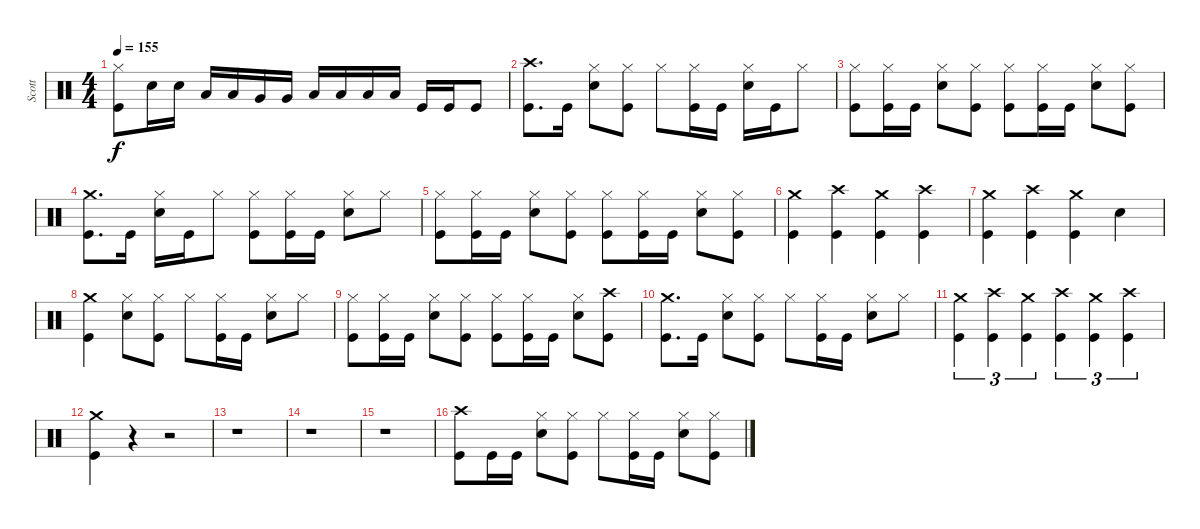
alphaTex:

\track ("Scott" "Scott") {instrument percussion}
\staff {score}
\articulation defaults
\ts (4 4)
\tempo 155
\clef neutral
\ks c
("Kick (hit)" "Hi-Hat (closed)").8{dy f} "Snare (hit) 2".16 "Snare (hit) 2".16 "Low Tom (hit)".16 "Low Tom (hit)".16 "Very Low Tom (hit)".16 "Very Low Tom (hit)".16 "Low Floor Tom (hit)".16 "Low Floor Tom (hit)".16 "Low Floor Tom (hit)".16 "Low Floor Tom (hit)".16 "Kick (hit)".16 "Kick (hit)".16 "Kick (hit)".8 |
("Kick (hit)" "Crash high (hit)").8{d} "Kick (hit)".16 ("Snare (hit) 2" "Hi-Hat (closed)").8 ("Kick (hit)" "Hi-Hat (closed)").8 "Hi-Hat (closed)".8 ("Kick (hit)" "Hi-Hat (closed)").16 "Kick (hit)".16 ("Snare (hit) 2" "Hi-Hat (closed)").16 "Kick (hit)".16 "Hi-Hat (closed)".8 |
("Kick (hit)" "Hi-Hat (closed)").8 ("Kick (hit)" "Hi-Hat (closed)").16 "Kick (hit)".16 ("Snare (hit) 2" "Hi-Hat (closed)").8 ("Kick (hit)" "Hi-Hat (closed)").8 ("Kick (hit)" "Hi-Hat (closed)").8 ("Kick (hit)" "Hi-Hat (closed)").16 "Kick (hit)".16 ("Snare (hit) 2" "Hi-Hat (closed)").8 ("Kick (hit)" "Hi-Hat (closed)").8 |
("Kick (hit)" "Crash medium (hit)").8{d} "Kick (hit)".16 ("Snare (hit) 2" "Hi-Hat (closed)").16 "Kick (hit)".16 "Hi-Hat (closed)".8 ("Kick (hit)" "Hi-Hat (closed)").8 ("Kick (hit)" "Hi-Hat (closed)").16 "Kick (hit)".16 ("Snare (hit) 2" "Hi-Hat (closed)").8 "Hi-Hat (closed)".8 |
("Kick (hit)" "Hi-Hat (closed)").8 ("Kick (hit)" "Hi-Hat (closed)").16 "Kick (hit)".16 ("Snare (hit) 2" "Hi-Hat (closed)").8 ("Kick (hit)" "Hi-Hat (closed)").8 ("Kick (hit)" "Hi-Hat (closed)").8 ("Kick (hit)" "Hi-Hat (closed)").16 "Kick (hit)".16 ("Snare (hit) 2" "Hi-Hat (closed)").8 ("Kick (hit)" "Hi-Hat (closed)").8 |
("Kick (hit)" "Crash medium (hit)").4 ("Kick (hit)" "Crash high (hit)").4 ("Kick (hit)" "Crash medium (hit)").4 ("Kick (hit)" "Crash high (hit)").4 |
("Kick (hit)" "Crash medium (hit)").4 ("Kick (hit)" "Crash high (hit)").4 ("Kick (hit)" "Crash medium (hit)").4 "Snare (hit) 2".4 |
("Kick (hit)" "Crash medium (hit)").4 ("Snare (hit) 2" "Hi-Hat (closed)").8 ("Kick (hit)" "Hi-Hat (closed)").8 "Hi-Hat (closed)".8 ("Kick (hit)" "Hi-Hat (closed)").16 "Kick (hit)".16 ("Snare (hit) 2" "Hi-Hat (closed)").8 "Hi-Hat (closed)".8 |
("Kick (hit)" "Hi-Hat (closed)").8 ("Kick (hit)" "Hi-Hat (closed)").16 "Kick (hit)".16 ("Snare (hit) 2" "Hi-Hat (closed)").8 ("Kick (hit)" "Hi-Hat (closed)").8 ("Kick (hit)" "Hi-Hat (closed)").8 ("Kick (hit)" "Hi-Hat (closed)").16 "Kick (hit)".16 ("Snare (hit) 2" "Hi-Hat (closed)").8 ("Kick (hit)" "Crash high (hit)").8 |
("Kick (hit)" "Crash medium (hit)").8{d} "Kick (hit)".16 ("Snare (hit) 2" "Hi-Hat (closed)").8 ("Kick (hit)" "Hi-Hat (closed)").8 "Hi-Hat (closed)".8 ("Kick (hit)" "Hi-Hat (closed)").16 "Kick (hit)".16 ("Snare (hit) 2" "Hi-Hat (closed)").8 "Hi-Hat (closed)".8 |
("Kick (hit)" "Crash medium (hit)").4{tu (3 2)} ("Kick (hit)" "Crash high (hit)").4{tu (3 2)} ("Kick (hit)" "Crash medium (hit)").4{tu (3 2)} ("Kick (hit)" "Crash high (hit)").4{tu (3 2)} ("Kick (hit)" "Crash medium (hit)").4{tu (3 2)} ("Kick (hit)" "Crash high (hit)").4{tu (3 2)} |
("Kick (hit)" "Crash medium (hit)").4 r.4 r.2 |
r.1 |
r.1 |
r.1 |
("Kick (hit)" "Crash high (hit)").8 "Kick (hit)".16 "Kick (hit)".16 ("Snare (hit) 2" "Hi-Hat (closed)").8 ("Kick (hit)" "Hi-Hat (closed)").8 "Hi-Hat (closed)".8 ("Kick (hit)" "Hi-Hat (closed)").16 "Kick (hit)".16 ("Snare (hit) 2" "Hi-Hat (closed)").8 ("Kick (hit)" "Hi-Hat (closed)").8
